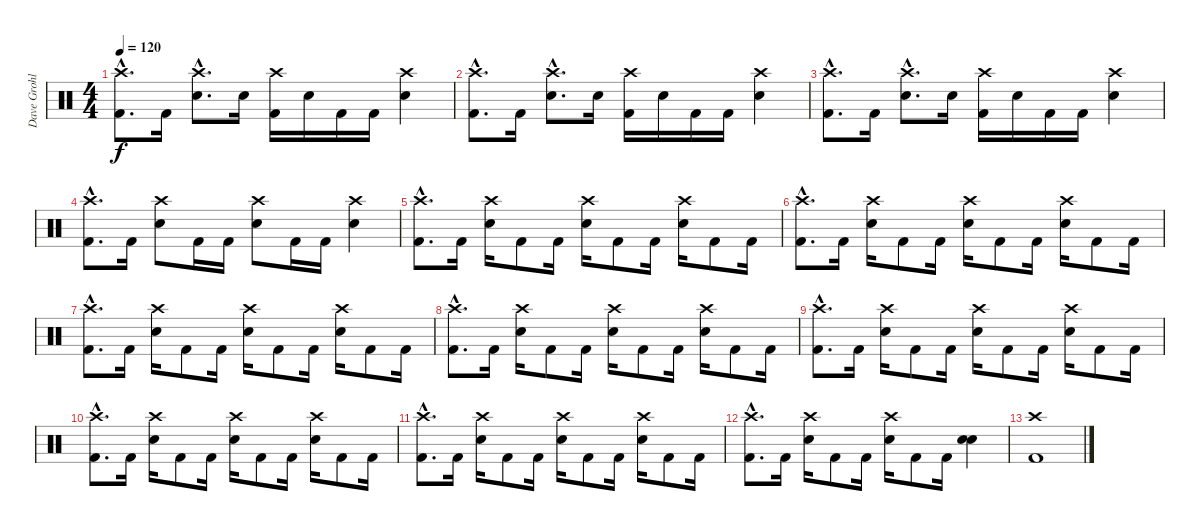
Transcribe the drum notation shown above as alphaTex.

\track ("Dave Grohl" "Dave Grohl") {instrument percussion}
\staff {score}
\articulation defaults
\ts (4 4)
\tempo 120
\clef neutral
\ks c
("Crash high (hit)"{hac} "Kick (hit) 2"{hac}).8{d dy f} "Kick (hit) 2".16 ("Crash high (hit)"{hac} "Snare (hit) 2"{hac}).8{d} "Snare (hit) 2".16 ("Crash high (hit)" "Kick (hit) 2").16 "Snare (hit) 2".16 "Kick (hit) 2".16 "Kick (hit) 2".16 ("Crash high (hit)" "Snare (hit) 2").4 |
("Crash high (hit)"{hac} "Kick (hit) 2"{hac}).8{d} "Kick (hit) 2".16 ("Crash high (hit)"{hac} "Snare (hit) 2"{hac}).8{d} "Snare (hit) 2".16 ("Crash high (hit)" "Kick (hit) 2").16 "Snare (hit) 2".16 "Kick (hit) 2".16 "Kick (hit) 2".16 ("Crash high (hit)" "Snare (hit) 2").4 |
("Crash high (hit)"{hac} "Kick (hit) 2"{hac}).8{d} "Kick (hit) 2".16 ("Crash high (hit)"{hac} "Snare (hit) 2"{hac}).8{d} "Snare (hit) 2".16 ("Crash high (hit)" "Kick (hit) 2").16 "Snare (hit) 2".16 "Kick (hit) 2".16 "Kick (hit) 2".16 ("Crash high (hit)" "Snare (hit) 2").4 |
("Crash high (hit)"{hac} "Kick (hit) 2"{hac}).8{d} "Kick (hit) 2".16 ("Crash high (hit)" "Snare (hit) 2").8 "Kick (hit) 2".16 "Kick (hit) 2".16 ("Crash high (hit)" "Snare (hit) 2").8 "Kick (hit) 2".16 "Kick (hit) 2".16 ("Crash high (hit)" "Snare (hit) 2").4 |
("Crash high (hit)"{hac} "Kick (hit) 2"{hac}).8{d} "Kick (hit) 2".16 ("Crash high (hit)" "Snare (hit) 2").16 "Kick (hit) 2".8 "Kick (hit) 2".16 ("Crash high (hit)" "Snare (hit) 2").16 "Kick (hit) 2".8 "Kick (hit) 2".16 ("Crash high (hit)" "Snare (hit) 2").16 "Kick (hit) 2".8 "Kick (hit) 2".16 |
("Crash high (hit)"{hac} "Kick (hit) 2"{hac}).8{d} "Kick (hit) 2".16 ("Crash high (hit)" "Snare (hit) 2").16 "Kick (hit) 2".8 "Kick (hit) 2".16 ("Crash high (hit)" "Snare (hit) 2").16 "Kick (hit) 2".8 "Kick (hit) 2".16 ("Crash high (hit)" "Snare (hit) 2").16 "Kick (hit) 2".8 "Kick (hit) 2".16 |
("Crash high (hit)"{hac} "Kick (hit) 2"{hac}).8{d} "Kick (hit) 2".16 ("Crash high (hit)" "Snare (hit) 2").16 "Kick (hit) 2".8 "Kick (hit) 2".16 ("Crash high (hit)" "Snare (hit) 2").16 "Kick (hit) 2".8 "Kick (hit) 2".16 ("Crash high (hit)" "Snare (hit) 2").16 "Kick (hit) 2".8 "Kick (hit) 2".16 |
("Crash high (hit)"{hac} "Kick (hit) 2"{hac}).8{d} "Kick (hit) 2".16 ("Crash high (hit)" "Snare (hit) 2").16 "Kick (hit) 2".8 "Kick (hit) 2".16 ("Crash high (hit)" "Snare (hit) 2").16 "Kick (hit) 2".8 "Kick (hit) 2".16 ("Crash high (hit)" "Snare (hit) 2").16 "Kick (hit) 2".8 "Kick (hit) 2".16 |
("Crash high (hit)"{hac} "Kick (hit) 2"{hac}).8{d} "Kick (hit) 2".16 ("Crash high (hit)" "Snare (hit) 2").16 "Kick (hit) 2".8 "Kick (hit) 2".16 ("Crash high (hit)" "Snare (hit) 2").16 "Kick (hit) 2".8 "Kick (hit) 2".16 ("Crash high (hit)" "Snare (hit) 2").16 "Kick (hit) 2".8 "Kick (hit) 2".16 |
("Crash high (hit)"{hac} "Kick (hit) 2"{hac}).8{d} "Kick (hit) 2".16 ("Crash high (hit)" "Snare (hit) 2").16 "Kick (hit) 2".8 "Kick (hit) 2".16 ("Crash high (hit)" "Snare (hit) 2").16 "Kick (hit) 2".8 "Kick (hit) 2".16 ("Crash high (hit)" "Snare (hit) 2").16 "Kick (hit) 2".8 "Kick (hit) 2".16 |
("Crash high (hit)"{hac} "Kick (hit) 2"{hac}).8{d} "Kick (hit) 2".16 ("Crash high (hit)" "Snare (hit) 2").16 "Kick (hit) 2".8 "Kick (hit) 2".16 ("Crash high (hit)" "Snare (hit) 2").16 "Kick (hit) 2".8 "Kick (hit) 2".16 ("Crash high (hit)" "Snare (hit) 2").16 "Kick (hit) 2".8 "Kick (hit) 2".16 |
("Crash high (hit)"{hac} "Kick (hit) 2"{hac}).8{d} "Kick (hit) 2".16 ("Crash high (hit)" "Snare (hit) 2").16 "Kick (hit) 2".8 "Kick (hit) 2".16 ("Crash high (hit)" "Snare (hit) 2").16 "Kick (hit) 2".8 "Kick (hit) 2".16 ("Snare (hit) 2" "Snare (hit) 2").4 |
("Crash high (hit)" "Kick (hit) 2").1
